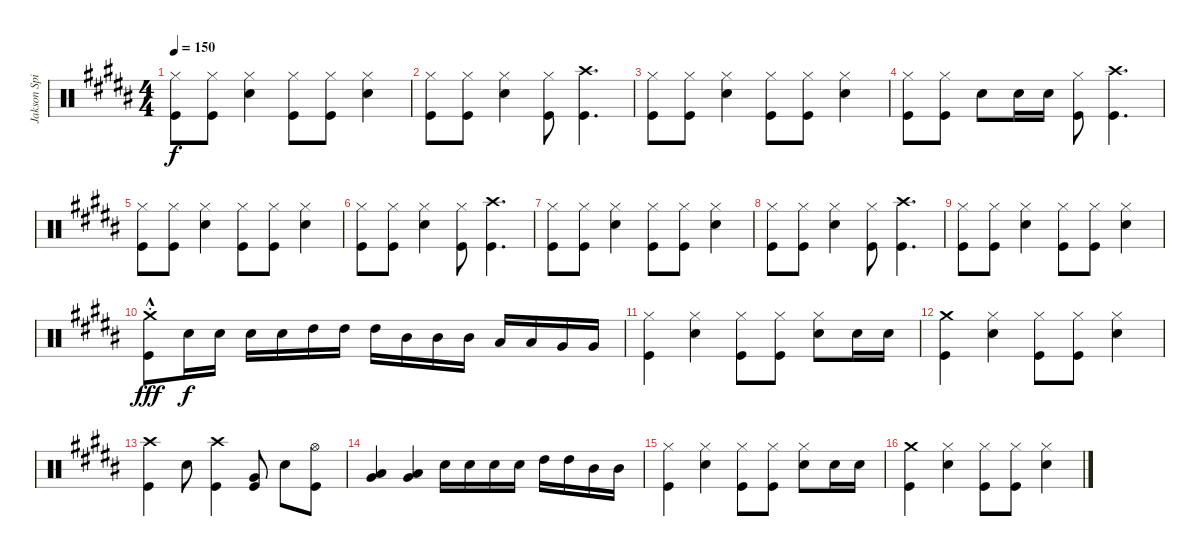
\track ("Jakson Spires Drums" "Jakson Spi") {instrument percussion}
\staff {score}
\articulation defaults
\ts (4 4)
\tempo 150
\clef neutral
\ks b
("Hi-Hat (closed)" "Kick (hit)").8{dy f} ("Hi-Hat (closed)" "Kick (hit)").8 ("Hi-Hat (closed)" "Snare (hit) 2").4 ("Hi-Hat (closed)" "Kick (hit)").8 ("Hi-Hat (closed)" "Kick (hit)").8 ("Hi-Hat (closed)" "Snare (hit) 2").4 |
("Hi-Hat (closed)" "Kick (hit)").8 ("Hi-Hat (closed)" "Kick (hit)").8 ("Hi-Hat (closed)" "Snare (hit) 2").4 ("Hi-Hat (closed)" "Kick (hit)").8 ("Crash high (hit)" "Kick (hit)").4{d} |
("Hi-Hat (closed)" "Kick (hit)").8 ("Hi-Hat (closed)" "Kick (hit)").8 ("Hi-Hat (closed)" "Snare (hit) 2").4 ("Hi-Hat (closed)" "Kick (hit)").8 ("Hi-Hat (closed)" "Kick (hit)").8 ("Hi-Hat (closed)" "Snare (hit) 2").4 |
("Hi-Hat (closed)" "Kick (hit)").8 ("Hi-Hat (closed)" "Kick (hit)").8 "Snare (hit) 2".8 "Snare (hit) 2".16 "Snare (hit) 2".16 ("Hi-Hat (closed)" "Kick (hit)").8 ("Crash high (hit)" "Kick (hit)").4{d} |
("Hi-Hat (closed)" "Kick (hit)").8 ("Hi-Hat (closed)" "Kick (hit)").8 ("Hi-Hat (closed)" "Snare (hit) 2").4 ("Hi-Hat (closed)" "Kick (hit)").8 ("Hi-Hat (closed)" "Kick (hit)").8 ("Hi-Hat (closed)" "Snare (hit) 2").4 |
("Hi-Hat (closed)" "Kick (hit)").8 ("Hi-Hat (closed)" "Kick (hit)").8 ("Hi-Hat (closed)" "Snare (hit) 2").4 ("Hi-Hat (closed)" "Kick (hit)").8 ("Crash high (hit)" "Kick (hit)").4{d} |
("Hi-Hat (closed)" "Kick (hit)").8 ("Hi-Hat (closed)" "Kick (hit)").8 ("Hi-Hat (closed)" "Snare (hit) 2").4 ("Hi-Hat (closed)" "Kick (hit)").8 ("Hi-Hat (closed)" "Kick (hit)").8 ("Hi-Hat (closed)" "Snare (hit) 2").4 |
("Hi-Hat (closed)" "Kick (hit)").8 ("Hi-Hat (closed)" "Kick (hit)").8 ("Hi-Hat (closed)" "Snare (hit) 2").4 ("Hi-Hat (closed)" "Kick (hit)").8 ("Crash high (hit)" "Kick (hit)").4{d} |
("Hi-Hat (closed)" "Kick (hit)").8 ("Hi-Hat (closed)" "Kick (hit)").8 ("Hi-Hat (closed)" "Snare (hit) 2").4 ("Hi-Hat (closed)" "Kick (hit)").8 ("Hi-Hat (closed)" "Kick (hit)").8 ("Hi-Hat (closed)" "Snare (hit) 2").4 |
("Crash medium (hit)"{hac st} "Kick (hit)").8{dy fff} "Snare (hit) 2".16{dy f} "Snare (hit) 2".16 "Snare (hit) 2".16 "Snare (hit) 2".16 "High Tom (hit)".16 "High Tom (hit)".16 "High Tom (hit)".16 "Mid Tom (hit)".16 "Mid Tom (hit)".16 "Mid Tom (hit)".16 "Low Tom (hit)".16 "Low Tom (hit)".16 "Very Low Tom (hit)".16 "Very Low Tom (hit)".16 |
("Hi-Hat (closed)" "Kick (hit)").4 ("Hi-Hat (closed)" "Snare (hit) 2").4 ("Hi-Hat (closed)" "Kick (hit)").8 ("Hi-Hat (closed)" "Kick (hit)").8 ("Hi-Hat (closed)" "Snare (hit) 2").8 "Snare (hit) 2".16 "Snare (hit) 2".16 |
("Crash medium (hit)" "Kick (hit)").4 ("Hi-Hat (closed)" "Snare (hit) 2").4 ("Hi-Hat (closed)" "Kick (hit)").8 ("Hi-Hat (closed)" "Kick (hit)").8 ("Hi-Hat (closed)" "Snare (hit) 2").4 |
("Crash high (hit)" "Kick (hit)").4 "Snare (hit) 2".8 ("Crash high (hit)" "Kick (hit)").4 ("Very Low Tom (hit)" "Kick (hit)").8 "Snare (hit) 2".8 ("Hi-Hat (open)" "Kick (hit)").8 |
("Low Tom (hit)" "Very Low Tom (hit)").4 ("Low Tom (hit)" "Very Low Tom (hit)").4 "Snare (hit) 2".16 "Snare (hit) 2".16 "Snare (hit) 2".16 "Snare (hit) 2".16 "High Tom (hit)".16 "High Tom (hit)".16 "Mid Tom (hit)".16 "Mid Tom (hit)".16 |
("Hi-Hat (closed)" "Kick (hit)").4 ("Hi-Hat (closed)" "Snare (hit) 2").4 ("Hi-Hat (closed)" "Kick (hit)").8 ("Hi-Hat (closed)" "Kick (hit)").8 ("Hi-Hat (closed)" "Snare (hit) 2").8 "Snare (hit) 2".16 "Snare (hit) 2".16 |
("Crash medium (hit)" "Kick (hit)").4 ("Hi-Hat (closed)" "Snare (hit) 2").4 ("Hi-Hat (closed)" "Kick (hit)").8 ("Hi-Hat (closed)" "Kick (hit)").8 ("Hi-Hat (closed)" "Snare (hit) 2").4
